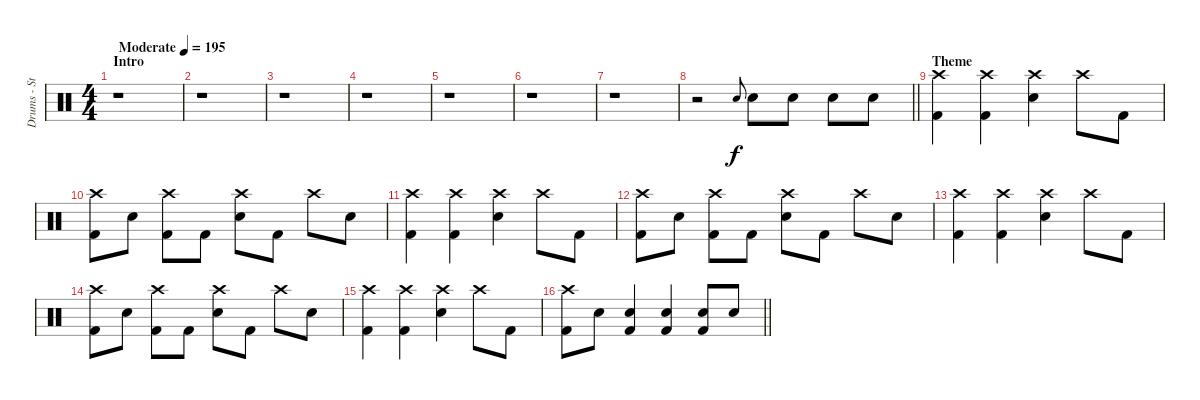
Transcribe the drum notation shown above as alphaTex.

\track ("Drums - Steve" "Drums - St") {instrument percussion}
\staff {score}
\articulation defaults
\ts (4 4)
\section ("" "Intro")
\tempo (195 "Moderate")
\clef neutral
\ks c
r.1{dy f} |
r.1 |
r.1 |
r.1 |
r.1 |
r.1 |
r.1 |
\barLineRight lightlight
r.2 "Snare (hit) 2".8{gr onbeat} "Snare (hit) 2".8 "Snare (hit) 2".8 "Snare (hit) 2".8 "Snare (hit) 2".8 |
\section ("" "Theme")
("Crash high (hit)" "Kick (hit) 2").4 ("Crash high (hit)" "Kick (hit) 2").4 ("Crash high (hit)" "Snare (hit) 2").4 "Crash high (hit)".8 "Kick (hit) 2".8 |
("Crash high (hit)" "Kick (hit) 2").8 "Snare (hit) 2".8 ("Crash high (hit)" "Kick (hit) 2").8 "Kick (hit) 2".8 ("Crash high (hit)" "Snare (hit) 2").8 "Kick (hit) 2".8 "Crash high (hit)".8 "Snare (hit) 2".8 |
("Crash high (hit)" "Kick (hit) 2").4 ("Crash high (hit)" "Kick (hit) 2").4 ("Crash high (hit)" "Snare (hit) 2").4 "Crash high (hit)".8 "Kick (hit) 2".8 |
("Crash high (hit)" "Kick (hit) 2").8 "Snare (hit) 2".8 ("Crash high (hit)" "Kick (hit) 2").8 "Kick (hit) 2".8 ("Crash high (hit)" "Snare (hit) 2").8 "Kick (hit) 2".8 "Crash high (hit)".8 "Snare (hit) 2".8 |
("Crash high (hit)" "Kick (hit) 2").4 ("Crash high (hit)" "Kick (hit) 2").4 ("Crash high (hit)" "Snare (hit) 2").4 "Crash high (hit)".8 "Kick (hit) 2".8 |
("Crash high (hit)" "Kick (hit) 2").8 "Snare (hit) 2".8 ("Crash high (hit)" "Kick (hit) 2").8 "Kick (hit) 2".8 ("Crash high (hit)" "Snare (hit) 2").8 "Kick (hit) 2".8 "Crash high (hit)".8 "Snare (hit) 2".8 |
("Crash high (hit)" "Kick (hit) 2").4 ("Crash high (hit)" "Kick (hit) 2").4 ("Crash high (hit)" "Snare (hit) 2").4 "Crash high (hit)".8 "Kick (hit) 2".8 |
\barLineRight lightlight
("Crash high (hit)" "Kick (hit) 2").8 "Snare (hit) 2".8 ("Snare (hit) 2" "Kick (hit) 2").4 ("Snare (hit) 2" "Kick (hit) 2").4 ("Snare (hit) 2" "Kick (hit) 2").8 "Snare (hit) 2".8
